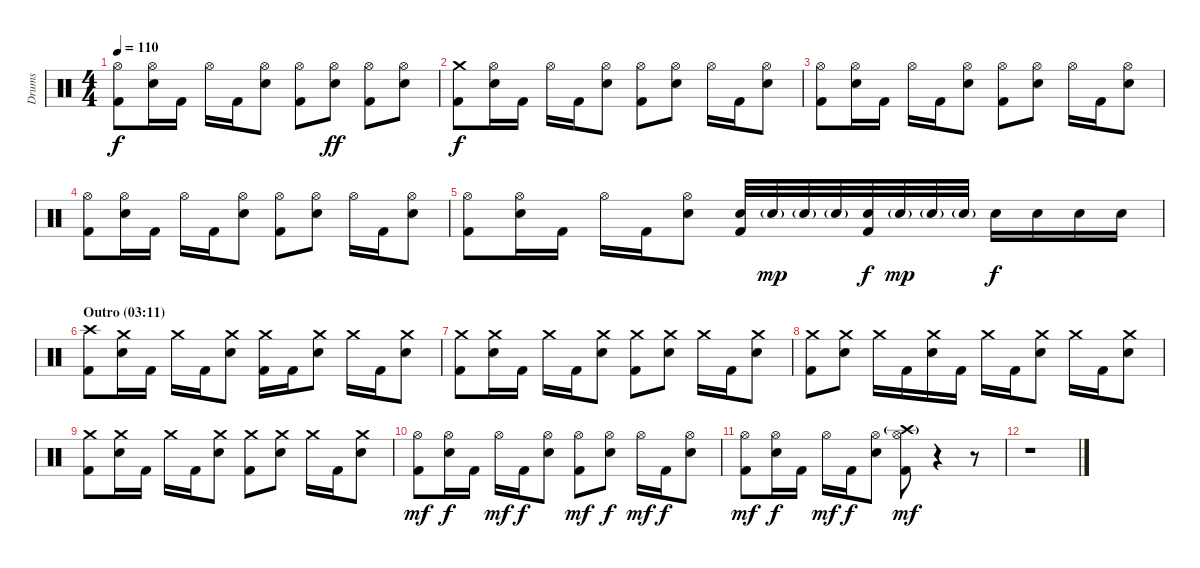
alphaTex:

\track ("Drums" "Drums") {instrument percussion}
\staff {score}
\articulation defaults
\ts (4 4)
\tempo 110
\clef neutral
\ks c
("Hi-Hat (open)" "Kick (hit) 2").8{dy f} ("Hi-Hat (open)" "Electric Snare (hit)").16 "Kick (hit) 2".16 "Hi-Hat (open)".16 "Kick (hit) 2".16 ("Hi-Hat (open)" "Electric Snare (hit)").8 ("Hi-Hat (open)" "Kick (hit) 2").8 ("Hi-Hat (open)" "Electric Snare (hit)").8{dy ff} ("Hi-Hat (open)" "Kick (hit) 2").8 ("Hi-Hat (open)" "Electric Snare (hit)").8 |
("Crash medium (hit)" "Kick (hit) 2").8{dy f} ("Hi-Hat (open)" "Electric Snare (hit)").16 "Kick (hit) 2".16 "Hi-Hat (open)".16 "Kick (hit) 2".16 ("Hi-Hat (open)" "Electric Snare (hit)").8 ("Hi-Hat (open)" "Kick (hit) 2").8 ("Hi-Hat (open)" "Electric Snare (hit)").8 "Hi-Hat (open)".16 "Kick (hit) 2".16 ("Hi-Hat (open)" "Electric Snare (hit)").8 |
("Hi-Hat (open)" "Kick (hit) 2").8 ("Hi-Hat (open)" "Electric Snare (hit)").16 "Kick (hit) 2".16 "Hi-Hat (open)".16 "Kick (hit) 2".16 ("Hi-Hat (open)" "Electric Snare (hit)").8 ("Hi-Hat (open)" "Kick (hit) 2").8 ("Hi-Hat (open)" "Electric Snare (hit)").8 "Hi-Hat (open)".16 "Kick (hit) 2".16 ("Hi-Hat (open)" "Electric Snare (hit)").8 |
("Hi-Hat (open)" "Kick (hit) 2").8 ("Hi-Hat (open)" "Electric Snare (hit)").16 "Kick (hit) 2".16 "Hi-Hat (open)".16 "Kick (hit) 2".16 ("Hi-Hat (open)" "Electric Snare (hit)").8 ("Hi-Hat (open)" "Kick (hit) 2").8 ("Hi-Hat (open)" "Electric Snare (hit)").8 "Hi-Hat (open)".16 "Kick (hit) 2".16 ("Hi-Hat (open)" "Electric Snare (hit)").8 |
("Hi-Hat (open)" "Kick (hit) 2").8 ("Hi-Hat (open)" "Electric Snare (hit)").16 "Kick (hit) 2".16 "Hi-Hat (open)".16 "Kick (hit) 2".16 ("Hi-Hat (open)" "Electric Snare (hit)").8 ("Electric Snare (hit)" "Kick (hit) 2").32 "Electric Snare (hit)"{g}.32{dy mp} "Electric Snare (hit)"{g}.32 "Electric Snare (hit)"{g}.32 ("Electric Snare (hit)" "Kick (hit) 2").32{dy f} "Electric Snare (hit)"{g}.32{dy mp} "Electric Snare (hit)"{g}.32 "Electric Snare (hit)"{g}.32 "Electric Snare (hit)".16{dy f} "Electric Snare (hit)".16 "Electric Snare (hit)".16 "Electric Snare (hit)".16 |
\section ("" "Outro (03:11)")
("Crash high (hit)" "Kick (hit) 2").8 ("Crash medium (hit)" "Electric Snare (hit)").16 "Kick (hit) 2".16 "Crash medium (hit)".16 "Kick (hit) 2".16 ("Crash medium (hit)" "Electric Snare (hit)").8 ("Crash medium (hit)" "Kick (hit) 2").16 "Kick (hit) 2".16 ("Crash medium (hit)" "Electric Snare (hit)").8 "Crash medium (hit)".16 "Kick (hit) 2".16 ("Crash medium (hit)" "Electric Snare (hit)").8 |
("Crash medium (hit)" "Kick (hit) 2").8 ("Crash medium (hit)" "Electric Snare (hit)").16 "Kick (hit) 2".16 "Crash medium (hit)".16 "Kick (hit) 2".16 ("Crash medium (hit)" "Electric Snare (hit)").8 ("Crash medium (hit)" "Kick (hit) 2").8 ("Crash medium (hit)" "Electric Snare (hit)").8 "Crash medium (hit)".16 "Kick (hit) 2".16 ("Crash medium (hit)" "Electric Snare (hit)").8 |
("Crash medium (hit)" "Kick (hit) 2").8 ("Crash medium (hit)" "Electric Snare (hit)").8 "Crash medium (hit)".16 "Kick (hit) 2".16 ("Crash medium (hit)" "Electric Snare (hit)").16 "Kick (hit) 2".16 "Crash medium (hit)".16 "Kick (hit) 2".16 ("Crash medium (hit)" "Electric Snare (hit)").8 "Crash medium (hit)".16 "Kick (hit) 2".16 ("Crash medium (hit)" "Electric Snare (hit)").8 |
("Crash medium (hit)" "Kick (hit) 2").8 ("Crash medium (hit)" "Electric Snare (hit)").16 "Kick (hit) 2".16 "Crash medium (hit)".16 "Kick (hit) 2".16 ("Crash medium (hit)" "Electric Snare (hit)").8 ("Crash medium (hit)" "Kick (hit) 2").8 ("Crash medium (hit)" "Electric Snare (hit)").8 "Crash medium (hit)".16 "Kick (hit) 2".16 ("Crash medium (hit)" "Electric Snare (hit)").8 |
("Hi-Hat (open)" "Kick (hit) 2").8{dy mf} ("Hi-Hat (open)" "Electric Snare (hit)").16{dy f} "Kick (hit) 2".16 "Hi-Hat (open)".16{dy mf} "Kick (hit) 2".16{dy f} ("Hi-Hat (open)" "Electric Snare (hit)").8 ("Hi-Hat (open)" "Kick (hit) 2").8{dy mf} ("Hi-Hat (open)" "Electric Snare (hit)").8{dy f} "Hi-Hat (open)".16{dy mf} "Kick (hit) 2".16{dy f} ("Hi-Hat (open)" "Electric Snare (hit)").8 |
("Hi-Hat (open)" "Kick (hit) 2").8{dy mf} ("Hi-Hat (open)" "Electric Snare (hit)").16{dy f} "Kick (hit) 2".16 "Hi-Hat (open)".16{dy mf} "Kick (hit) 2".16{dy f} ("Hi-Hat (open)" "Electric Snare (hit)").8 ("Crash high (hit)"{g} "Hi-Hat (open)" "Kick (hit) 2").8{dy mf} r.4 r.8 |
r.1
